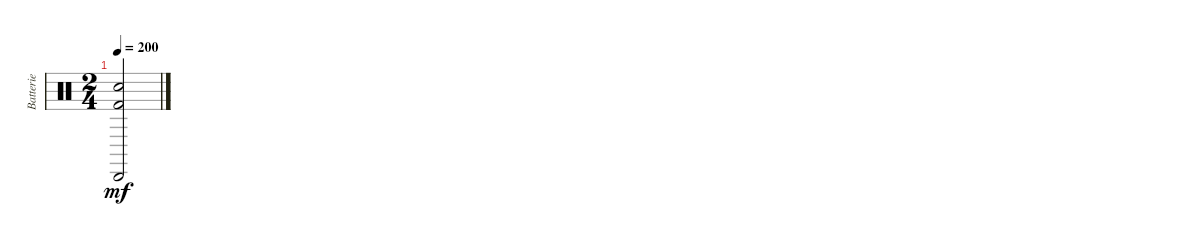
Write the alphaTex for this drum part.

\track ("Batterie" "Batterie") {instrument percussion}
\staff {score}
\articulation defaults
\ts (2 4)
\tempo 200
\clef neutral
\ks c
("Cabasa (hit)" "Snare (hit) 2" "Kick (hit) 2").2{dy mf}
